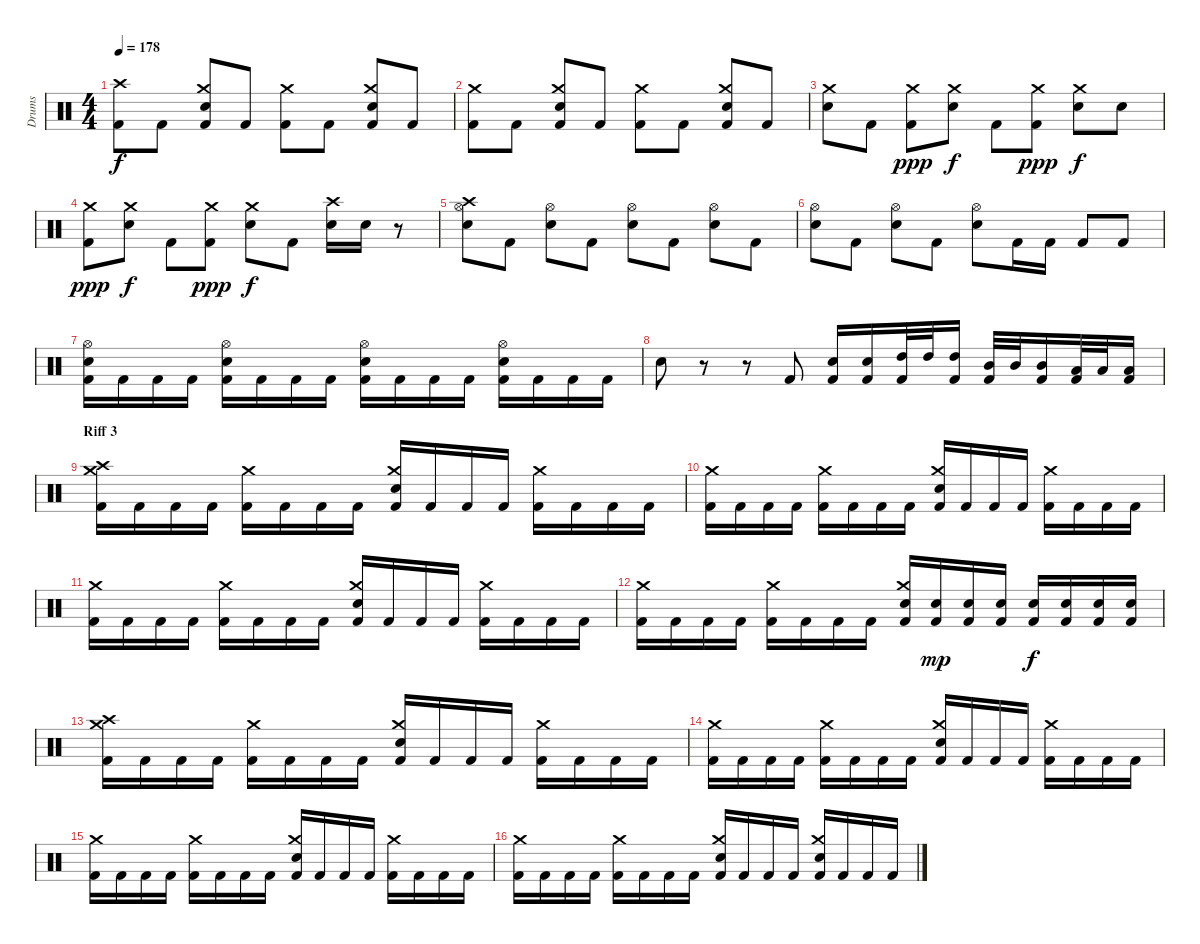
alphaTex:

\track ("Drums" "Drums") {instrument percussion}
\staff {score}
\articulation defaults
\ts (4 4)
\tempo 178
\clef neutral
\ks c
("Crash high (hit)" "Kick (hit) 2").8{dy f} "Kick (hit) 2".8 ("Crash medium (hit)" "Electric Snare (hit)" "Kick (hit) 2").8 "Kick (hit) 2".8 ("Crash medium (hit)" "Kick (hit) 2").8 "Kick (hit) 2".8 ("Crash medium (hit)" "Electric Snare (hit)" "Kick (hit) 2").8 "Kick (hit) 2".8 |
("Crash medium (hit)" "Kick (hit) 2").8 "Kick (hit) 2".8 ("Crash medium (hit)" "Electric Snare (hit)" "Kick (hit) 2").8 "Kick (hit) 2".8 ("Crash medium (hit)" "Kick (hit) 2").8 "Kick (hit) 2".8 ("Crash medium (hit)" "Electric Snare (hit)" "Kick (hit) 2").8 "Kick (hit) 2".8 |
("Crash medium (hit)" "Electric Snare (hit)").8 "Kick (hit) 2".8 ("Crash medium (hit)" "Kick (hit) 2").8{dy ppp} ("Crash medium (hit)" "Electric Snare (hit)").8{dy f} "Kick (hit) 2".8 ("Crash medium (hit)" "Kick (hit) 2").8{dy ppp} ("Crash medium (hit)" "Electric Snare (hit)").8{dy f} "Electric Snare (hit)".8 |
("Crash medium (hit)" "Kick (hit) 2").8{dy ppp} ("Crash medium (hit)" "Electric Snare (hit)").8{dy f} "Kick (hit) 2".8 ("Crash medium (hit)" "Kick (hit) 2").8{dy ppp} ("Crash medium (hit)" "Electric Snare (hit)").8{dy f} "Kick (hit) 2".8 ("Crash high (hit)" "Electric Snare (hit)").16 "Electric Snare (hit)".16 r.8 |
("Crash high (hit)" "Hi-Hat (open)" "Electric Snare (hit)").8 "Kick (hit) 2".8 ("Hi-Hat (open)" "Electric Snare (hit)").8 "Kick (hit) 2".8 ("Hi-Hat (open)" "Electric Snare (hit)").8 "Kick (hit) 2".8 ("Hi-Hat (open)" "Electric Snare (hit)").8 "Kick (hit) 2".8 |
("Hi-Hat (open)" "Electric Snare (hit)").8 "Kick (hit) 2".8 ("Hi-Hat (open)" "Electric Snare (hit)").8 "Kick (hit) 2".8 ("Hi-Hat (open)" "Electric Snare (hit)").8 "Kick (hit) 2".16 "Kick (hit) 2".16 "Kick (hit) 2".8 "Kick (hit) 2".8 |
("Hi-Hat (open)" "Electric Snare (hit)" "Kick (hit) 2").16 "Kick (hit) 2".16 "Kick (hit) 2".16 "Kick (hit) 2".16 ("Hi-Hat (open)" "Electric Snare (hit)" "Kick (hit) 2").16 "Kick (hit) 2".16 "Kick (hit) 2".16 "Kick (hit) 2".16 ("Hi-Hat (open)" "Electric Snare (hit)" "Kick (hit) 2").16 "Kick (hit) 2".16 "Kick (hit) 2".16 "Kick (hit) 2".16 ("Hi-Hat (open)" "Electric Snare (hit)" "Kick (hit) 2").16 "Kick (hit) 2".16 "Kick (hit) 2".16 "Kick (hit) 2".16 |
"Electric Snare (hit)".8 r.8 r.8 "Kick (hit) 2".8 ("Electric Snare (hit)" "Kick (hit) 2").16 ("Electric Snare (hit)" "Kick (hit) 2").16 ("High Tom (hit)" "Kick (hit) 2").32 "High Tom (hit)".32 ("High Tom (hit)" "Kick (hit) 2").16 ("Mid Tom (hit)" "Kick (hit) 2").32 "Mid Tom (hit)".32 ("Mid Tom (hit)" "Kick (hit) 2").16 ("Low Tom (hit)" "Kick (hit) 2").32 "Low Tom (hit)".32 ("Low Tom (hit)" "Kick (hit) 2").16 |
\section ("" "Riff 3")
("Crash high (hit)" "Crash medium (hit)" "Kick (hit) 2").16 "Kick (hit) 2".16 "Kick (hit) 2".16 "Kick (hit) 2".16 ("Crash medium (hit)" "Kick (hit) 2").16 "Kick (hit) 2".16 "Kick (hit) 2".16 "Kick (hit) 2".16 ("Crash medium (hit)" "Electric Snare (hit)" "Kick (hit) 2").16 "Kick (hit) 2".16 "Kick (hit) 2".16 "Kick (hit) 2".16 ("Crash medium (hit)" "Kick (hit) 2").16 "Kick (hit) 2".16 "Kick (hit) 2".16 "Kick (hit) 2".16 |
("Crash medium (hit)" "Kick (hit) 2").16 "Kick (hit) 2".16 "Kick (hit) 2".16 "Kick (hit) 2".16 ("Crash medium (hit)" "Kick (hit) 2").16 "Kick (hit) 2".16 "Kick (hit) 2".16 "Kick (hit) 2".16 ("Crash medium (hit)" "Electric Snare (hit)" "Kick (hit) 2").16 "Kick (hit) 2".16 "Kick (hit) 2".16 "Kick (hit) 2".16 ("Crash medium (hit)" "Kick (hit) 2").16 "Kick (hit) 2".16 "Kick (hit) 2".16 "Kick (hit) 2".16 |
("Crash medium (hit)" "Kick (hit) 2").16 "Kick (hit) 2".16 "Kick (hit) 2".16 "Kick (hit) 2".16 ("Crash medium (hit)" "Kick (hit) 2").16 "Kick (hit) 2".16 "Kick (hit) 2".16 "Kick (hit) 2".16 ("Crash medium (hit)" "Electric Snare (hit)" "Kick (hit) 2").16 "Kick (hit) 2".16 "Kick (hit) 2".16 "Kick (hit) 2".16 ("Crash medium (hit)" "Kick (hit) 2").16 "Kick (hit) 2".16 "Kick (hit) 2".16 "Kick (hit) 2".16 |
("Crash medium (hit)" "Kick (hit) 2").16 "Kick (hit) 2".16 "Kick (hit) 2".16 "Kick (hit) 2".16 ("Crash medium (hit)" "Kick (hit) 2").16 "Kick (hit) 2".16 "Kick (hit) 2".16 "Kick (hit) 2".16 ("Crash medium (hit)" "Electric Snare (hit)" "Kick (hit) 2").16 ("Electric Snare (hit)" "Kick (hit) 2").16{dy mp} ("Electric Snare (hit)" "Kick (hit) 2").16 ("Electric Snare (hit)" "Kick (hit) 2").16 ("Electric Snare (hit)" "Kick (hit) 2").16{dy f} ("Electric Snare (hit)" "Kick (hit) 2").16 ("Electric Snare (hit)" "Kick (hit) 2").16 ("Electric Snare (hit)" "Kick (hit) 2").16 |
("Crash high (hit)" "Crash medium (hit)" "Kick (hit) 2").16 "Kick (hit) 2".16 "Kick (hit) 2".16 "Kick (hit) 2".16 ("Crash medium (hit)" "Kick (hit) 2").16 "Kick (hit) 2".16 "Kick (hit) 2".16 "Kick (hit) 2".16 ("Crash medium (hit)" "Electric Snare (hit)" "Kick (hit) 2").16 "Kick (hit) 2".16 "Kick (hit) 2".16 "Kick (hit) 2".16 ("Crash medium (hit)" "Kick (hit) 2").16 "Kick (hit) 2".16 "Kick (hit) 2".16 "Kick (hit) 2".16 |
("Crash medium (hit)" "Kick (hit) 2").16 "Kick (hit) 2".16 "Kick (hit) 2".16 "Kick (hit) 2".16 ("Crash medium (hit)" "Kick (hit) 2").16 "Kick (hit) 2".16 "Kick (hit) 2".16 "Kick (hit) 2".16 ("Crash medium (hit)" "Electric Snare (hit)" "Kick (hit) 2").16 "Kick (hit) 2".16 "Kick (hit) 2".16 "Kick (hit) 2".16 ("Crash medium (hit)" "Kick (hit) 2").16 "Kick (hit) 2".16 "Kick (hit) 2".16 "Kick (hit) 2".16 |
("Crash medium (hit)" "Kick (hit) 2").16 "Kick (hit) 2".16 "Kick (hit) 2".16 "Kick (hit) 2".16 ("Crash medium (hit)" "Kick (hit) 2").16 "Kick (hit) 2".16 "Kick (hit) 2".16 "Kick (hit) 2".16 ("Crash medium (hit)" "Electric Snare (hit)" "Kick (hit) 2").16 "Kick (hit) 2".16 "Kick (hit) 2".16 "Kick (hit) 2".16 ("Crash medium (hit)" "Kick (hit) 2").16 "Kick (hit) 2".16 "Kick (hit) 2".16 "Kick (hit) 2".16 |
("Crash medium (hit)" "Kick (hit) 2").16 "Kick (hit) 2".16 "Kick (hit) 2".16 "Kick (hit) 2".16 ("Crash medium (hit)" "Kick (hit) 2").16 "Kick (hit) 2".16 "Kick (hit) 2".16 "Kick (hit) 2".16 ("Crash medium (hit)" "Electric Snare (hit)" "Kick (hit) 2").16 "Kick (hit) 2".16 "Kick (hit) 2".16 "Kick (hit) 2".16 ("Crash medium (hit)" "Electric Snare (hit)" "Kick (hit) 2").16 "Kick (hit) 2".16 "Kick (hit) 2".16 "Kick (hit) 2".16
